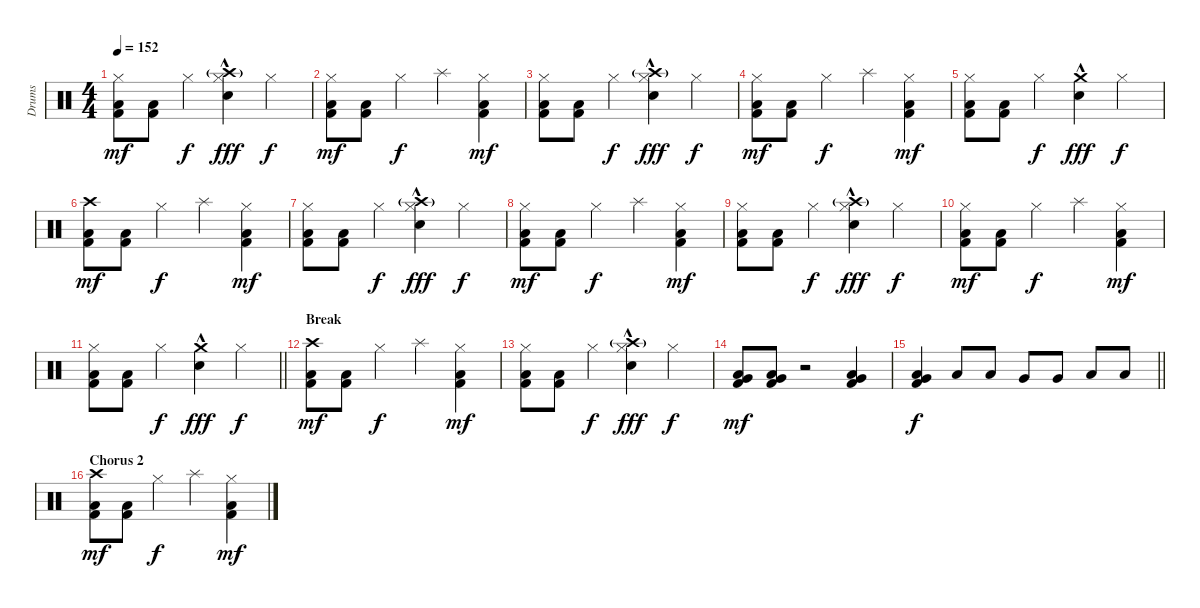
\track ("Drums" "Drums") {instrument percussion}
\staff {score}
\articulation defaults
\ts (4 4)
\tempo 152
\clef neutral
\ks c
("Hi-Hat (closed)" "Low Floor Tom (hit)" "Kick (hit) 2").8{dy mf} ("Low Floor Tom (hit)" "Kick (hit) 2").8 "Hi-Hat (closed)".4{dy f} ("Crash high (hit)"{g} "Hi-Hat (closed)" "Snare (hit) 2"{hac}).4{dy fff} "Hi-Hat (closed)".4{dy f} |
("Hi-Hat (closed)" "Low Floor Tom (hit)" "Kick (hit) 2").8{dy mf} ("Low Floor Tom (hit)" "Kick (hit) 2").8 "Hi-Hat (closed)".4{dy f} "Splash (hit)".4 ("Hi-Hat (closed)" "Low Floor Tom (hit)" "Kick (hit) 2").4{dy mf} |
("Hi-Hat (closed)" "Low Floor Tom (hit)" "Kick (hit) 2").8 ("Low Floor Tom (hit)" "Kick (hit) 2").8 "Hi-Hat (closed)".4{dy f} ("Crash high (hit)"{g} "Hi-Hat (closed)" "Snare (hit) 2"{hac}).4{dy fff} "Hi-Hat (closed)".4{dy f} |
("Hi-Hat (closed)" "Low Floor Tom (hit)" "Kick (hit) 2").8{dy mf} ("Low Floor Tom (hit)" "Kick (hit) 2").8 "Hi-Hat (closed)".4{dy f} "Splash (hit)".4 ("Hi-Hat (closed)" "Low Floor Tom (hit)" "Kick (hit) 2").4{dy mf} |
("Hi-Hat (closed)" "Low Floor Tom (hit)" "Kick (hit) 2").8 ("Low Floor Tom (hit)" "Kick (hit) 2").8 "Hi-Hat (closed)".4{dy f} ("Crash medium (hit)" "Snare (hit) 2"{hac}).4{dy fff} "Hi-Hat (closed)".4{dy f} |
("Crash high (hit)" "Low Floor Tom (hit)" "Kick (hit) 2").8{dy mf} ("Low Floor Tom (hit)" "Kick (hit) 2").8 "Hi-Hat (closed)".4{dy f} "Splash (hit)".4 ("Hi-Hat (closed)" "Low Floor Tom (hit)" "Kick (hit) 2").4{dy mf} |
("Hi-Hat (closed)" "Low Floor Tom (hit)" "Kick (hit) 2").8 ("Low Floor Tom (hit)" "Kick (hit) 2").8 "Hi-Hat (closed)".4{dy f} ("Crash high (hit)"{g} "Hi-Hat (closed)" "Snare (hit) 2"{hac}).4{dy fff} "Hi-Hat (closed)".4{dy f} |
("Hi-Hat (closed)" "Low Floor Tom (hit)" "Kick (hit) 2").8{dy mf} ("Low Floor Tom (hit)" "Kick (hit) 2").8 "Hi-Hat (closed)".4{dy f} "Splash (hit)".4 ("Hi-Hat (closed)" "Low Floor Tom (hit)" "Kick (hit) 2").4{dy mf} |
("Hi-Hat (closed)" "Low Floor Tom (hit)" "Kick (hit) 2").8 ("Low Floor Tom (hit)" "Kick (hit) 2").8 "Hi-Hat (closed)".4{dy f} ("Crash high (hit)"{g} "Hi-Hat (closed)" "Snare (hit) 2"{hac}).4{dy fff} "Hi-Hat (closed)".4{dy f} |
("Hi-Hat (closed)" "Low Floor Tom (hit)" "Kick (hit) 2").8{dy mf} ("Low Floor Tom (hit)" "Kick (hit) 2").8 "Hi-Hat (closed)".4{dy f} "Splash (hit)".4 ("Hi-Hat (closed)" "Low Floor Tom (hit)" "Kick (hit) 2").4{dy mf} |
\barLineRight lightlight
("Hi-Hat (closed)" "Low Floor Tom (hit)" "Kick (hit) 2").8 ("Low Floor Tom (hit)" "Kick (hit) 2").8 "Hi-Hat (closed)".4{dy f} ("Crash medium (hit)" "Snare (hit) 2"{hac}).4{dy fff} "Hi-Hat (closed)".4{dy f} |
\section ("" "Break")
("Crash high (hit)" "Low Floor Tom (hit)" "Kick (hit) 2").8{dy mf} ("Low Floor Tom (hit)" "Kick (hit) 2").8 "Hi-Hat (closed)".4{dy f} "Splash (hit)".4 ("Hi-Hat (closed)" "Low Floor Tom (hit)" "Kick (hit) 2").4{dy mf} |
("Hi-Hat (closed)" "Low Floor Tom (hit)" "Kick (hit) 2").8 ("Low Floor Tom (hit)" "Kick (hit) 2").8 "Hi-Hat (closed)".4{dy f} ("Crash high (hit)"{g} "Hi-Hat (closed)" "Snare (hit) 2"{hac}).4{dy fff} "Hi-Hat (closed)".4{dy f} |
("Very Low Tom (hit)" "Low Floor Tom (hit)" "Kick (hit) 2").8{dy mf} ("Very Low Tom (hit)" "Low Floor Tom (hit)" "Kick (hit) 2").8 r.2 ("Very Low Tom (hit)" "Low Floor Tom (hit)" "Kick (hit) 2").4 |
\barLineRight lightlight
("Very Low Tom (hit)" "Low Floor Tom (hit)" "Kick (hit) 2").4{dy f} "Low Tom (hit)".8 "Low Tom (hit)".8 "Very Low Tom (hit)".8 "Very Low Tom (hit)".8 "Low Floor Tom (hit)".8 "Low Floor Tom (hit)".8 |
\section ("" "Chorus 2")
("Crash high (hit)" "Low Floor Tom (hit)" "Kick (hit) 2").8{dy mf} ("Low Floor Tom (hit)" "Kick (hit) 2").8 "Hi-Hat (closed)".4{dy f} "Splash (hit)".4 ("Hi-Hat (closed)" "Low Floor Tom (hit)" "Kick (hit) 2").4{dy mf}
